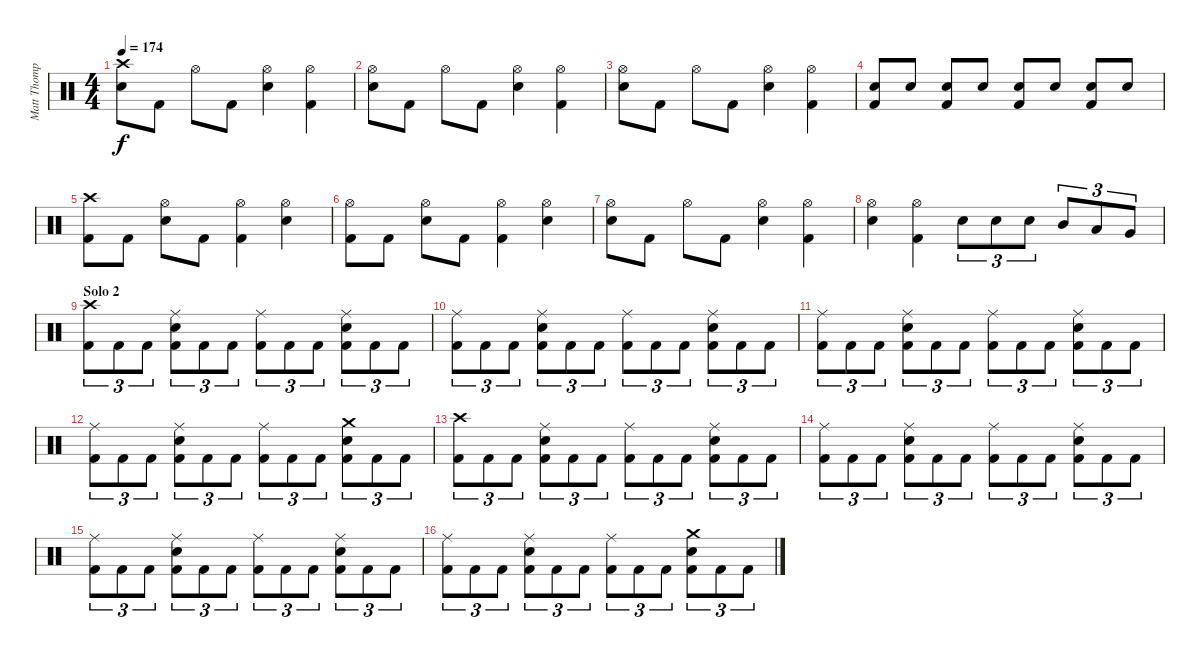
\track ("Matt Thompson" "Matt Thomp") {instrument percussion}
\staff {score}
\articulation defaults
\ts (4 4)
\tempo 174
\clef neutral
\ks c
("Crash high (hit)" "Snare (hit) 2").8{dy f} "Kick (hit) 2".8 "Hi-Hat (open)".8 "Kick (hit) 2".8 ("Hi-Hat (open)" "Snare (hit) 2").4 ("Hi-Hat (open)" "Kick (hit) 2").4 |
("Hi-Hat (open)" "Snare (hit) 2").8 "Kick (hit) 2".8 "Hi-Hat (open)".8 "Kick (hit) 2".8 ("Hi-Hat (open)" "Snare (hit) 2").4 ("Hi-Hat (open)" "Kick (hit) 2").4 |
("Hi-Hat (open)" "Snare (hit) 2").8 "Kick (hit) 2".8 "Hi-Hat (open)".8 "Kick (hit) 2".8 ("Hi-Hat (open)" "Snare (hit) 2").4 ("Hi-Hat (open)" "Kick (hit) 2").4 |
("Snare (hit) 2" "Kick (hit) 2").8 "Snare (hit) 2".8 ("Snare (hit) 2" "Kick (hit) 2").8 "Snare (hit) 2".8 ("Snare (hit) 2" "Kick (hit) 2").8 "Snare (hit) 2".8 ("Snare (hit) 2" "Kick (hit) 2").8 "Snare (hit) 2".8 |
("Crash high (hit)" "Kick (hit) 2").8 "Kick (hit) 2".8 ("Hi-Hat (open)" "Snare (hit) 2").8 "Kick (hit) 2".8 ("Hi-Hat (open)" "Kick (hit) 2").4 ("Hi-Hat (open)" "Snare (hit) 2").4 |
("Hi-Hat (open)" "Kick (hit) 2").8 "Kick (hit) 2".8 ("Hi-Hat (open)" "Snare (hit) 2").8 "Kick (hit) 2".8 ("Hi-Hat (open)" "Kick (hit) 2").4 ("Hi-Hat (open)" "Snare (hit) 2").4 |
("Hi-Hat (open)" "Snare (hit) 2").8 "Kick (hit) 2".8 "Hi-Hat (open)".8 "Kick (hit) 2".8 ("Hi-Hat (open)" "Snare (hit) 2").4 ("Hi-Hat (open)" "Kick (hit) 2").4 |
("Hi-Hat (open)" "Snare (hit) 2").4 ("Hi-Hat (open)" "Kick (hit) 2").4 "Snare (hit) 2".8{tu (3 2)} "Snare (hit) 2".8{tu (3 2)} "Snare (hit) 2".8{tu (3 2)} "Mid Tom (hit)".8{tu (3 2)} "Low Tom (hit)".8{tu (3 2)} "Very Low Tom (hit)".8{tu (3 2)} |
\section ("" "Solo 2")
("Crash high (hit)" "Kick (hit) 2").8{tu (3 2)} "Kick (hit) 2".8{tu (3 2)} "Kick (hit) 2".8{tu (3 2)} ("Ride (middle)" "Snare (hit) 2" "Kick (hit) 2").8{tu (3 2)} "Kick (hit) 2".8{tu (3 2)} "Kick (hit) 2".8{tu (3 2)} ("Ride (middle)" "Kick (hit) 2").8{tu (3 2)} "Kick (hit) 2".8{tu (3 2)} "Kick (hit) 2".8{tu (3 2)} ("Ride (middle)" "Snare (hit) 2" "Kick (hit) 2").8{tu (3 2)} "Kick (hit) 2".8{tu (3 2)} "Kick (hit) 2".8{tu (3 2)} |
("Ride (middle)" "Kick (hit) 2").8{tu (3 2)} "Kick (hit) 2".8{tu (3 2)} "Kick (hit) 2".8{tu (3 2)} ("Ride (middle)" "Snare (hit) 2" "Kick (hit) 2").8{tu (3 2)} "Kick (hit) 2".8{tu (3 2)} "Kick (hit) 2".8{tu (3 2)} ("Ride (middle)" "Kick (hit) 2").8{tu (3 2)} "Kick (hit) 2".8{tu (3 2)} "Kick (hit) 2".8{tu (3 2)} ("Ride (middle)" "Snare (hit) 2" "Kick (hit) 2").8{tu (3 2)} "Kick (hit) 2".8{tu (3 2)} "Kick (hit) 2".8{tu (3 2)} |
("Ride (middle)" "Kick (hit) 2").8{tu (3 2)} "Kick (hit) 2".8{tu (3 2)} "Kick (hit) 2".8{tu (3 2)} ("Ride (middle)" "Snare (hit) 2" "Kick (hit) 2").8{tu (3 2)} "Kick (hit) 2".8{tu (3 2)} "Kick (hit) 2".8{tu (3 2)} ("Ride (middle)" "Kick (hit) 2").8{tu (3 2)} "Kick (hit) 2".8{tu (3 2)} "Kick (hit) 2".8{tu (3 2)} ("Ride (middle)" "Snare (hit) 2" "Kick (hit) 2").8{tu (3 2)} "Kick (hit) 2".8{tu (3 2)} "Kick (hit) 2".8{tu (3 2)} |
("Ride (middle)" "Kick (hit) 2").8{tu (3 2)} "Kick (hit) 2".8{tu (3 2)} "Kick (hit) 2".8{tu (3 2)} ("Ride (middle)" "Snare (hit) 2" "Kick (hit) 2").8{tu (3 2)} "Kick (hit) 2".8{tu (3 2)} "Kick (hit) 2".8{tu (3 2)} ("Ride (middle)" "Kick (hit) 2").8{tu (3 2)} "Kick (hit) 2".8{tu (3 2)} "Kick (hit) 2".8{tu (3 2)} ("Crash medium (hit)" "Snare (hit) 2" "Kick (hit) 2").8{tu (3 2)} "Kick (hit) 2".8{tu (3 2)} "Kick (hit) 2".8{tu (3 2)} |
("Crash high (hit)" "Kick (hit) 2").8{tu (3 2)} "Kick (hit) 2".8{tu (3 2)} "Kick (hit) 2".8{tu (3 2)} ("Ride (middle)" "Snare (hit) 2" "Kick (hit) 2").8{tu (3 2)} "Kick (hit) 2".8{tu (3 2)} "Kick (hit) 2".8{tu (3 2)} ("Ride (middle)" "Kick (hit) 2").8{tu (3 2)} "Kick (hit) 2".8{tu (3 2)} "Kick (hit) 2".8{tu (3 2)} ("Ride (middle)" "Snare (hit) 2" "Kick (hit) 2").8{tu (3 2)} "Kick (hit) 2".8{tu (3 2)} "Kick (hit) 2".8{tu (3 2)} |
("Ride (middle)" "Kick (hit) 2").8{tu (3 2)} "Kick (hit) 2".8{tu (3 2)} "Kick (hit) 2".8{tu (3 2)} ("Ride (middle)" "Snare (hit) 2" "Kick (hit) 2").8{tu (3 2)} "Kick (hit) 2".8{tu (3 2)} "Kick (hit) 2".8{tu (3 2)} ("Ride (middle)" "Kick (hit) 2").8{tu (3 2)} "Kick (hit) 2".8{tu (3 2)} "Kick (hit) 2".8{tu (3 2)} ("Ride (middle)" "Snare (hit) 2" "Kick (hit) 2").8{tu (3 2)} "Kick (hit) 2".8{tu (3 2)} "Kick (hit) 2".8{tu (3 2)} |
("Ride (middle)" "Kick (hit) 2").8{tu (3 2)} "Kick (hit) 2".8{tu (3 2)} "Kick (hit) 2".8{tu (3 2)} ("Ride (middle)" "Snare (hit) 2" "Kick (hit) 2").8{tu (3 2)} "Kick (hit) 2".8{tu (3 2)} "Kick (hit) 2".8{tu (3 2)} ("Ride (middle)" "Kick (hit) 2").8{tu (3 2)} "Kick (hit) 2".8{tu (3 2)} "Kick (hit) 2".8{tu (3 2)} ("Ride (middle)" "Snare (hit) 2" "Kick (hit) 2").8{tu (3 2)} "Kick (hit) 2".8{tu (3 2)} "Kick (hit) 2".8{tu (3 2)} |
("Ride (middle)" "Kick (hit) 2").8{tu (3 2)} "Kick (hit) 2".8{tu (3 2)} "Kick (hit) 2".8{tu (3 2)} ("Ride (middle)" "Snare (hit) 2" "Kick (hit) 2").8{tu (3 2)} "Kick (hit) 2".8{tu (3 2)} "Kick (hit) 2".8{tu (3 2)} ("Ride (middle)" "Kick (hit) 2").8{tu (3 2)} "Kick (hit) 2".8{tu (3 2)} "Kick (hit) 2".8{tu (3 2)} ("Crash medium (hit)" "Snare (hit) 2" "Kick (hit) 2").8{tu (3 2)} "Kick (hit) 2".8{tu (3 2)} "Kick (hit) 2".8{tu (3 2)}
